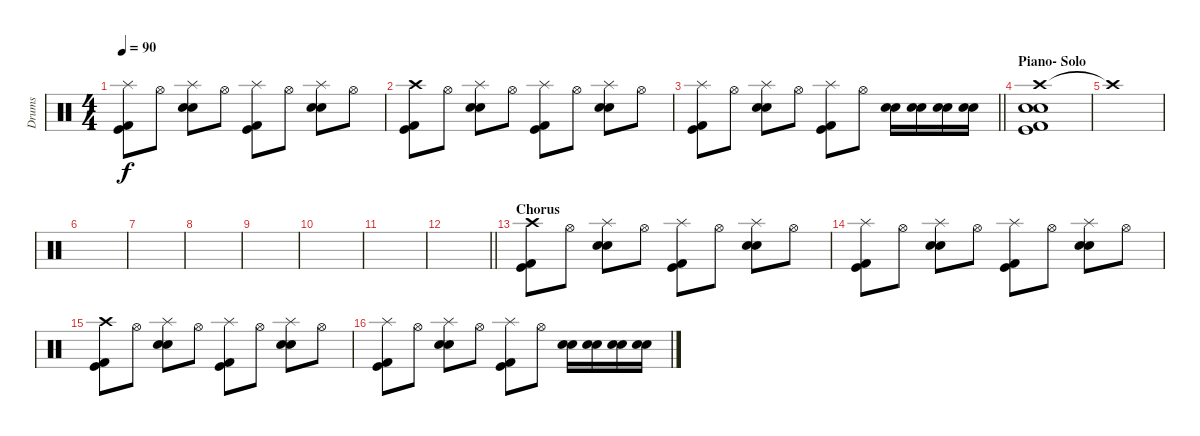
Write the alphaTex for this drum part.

\track ("Drums" "Drums") {instrument percussion}
\staff {score}
\articulation defaults
\ts (4 4)
\tempo 90
\clef neutral
\ks c
("Splash (hit)" "Kick (hit) 2" "Kick (hit)").8{dy f} "Hi-Hat (open)".8 ("Splash (hit)" "Electric Snare (hit)" "Snare (hit) 2").8 "Hi-Hat (open)".8 ("Splash (hit)" "Kick (hit) 2" "Kick (hit)").8 "Hi-Hat (open)".8 ("Splash (hit)" "Electric Snare (hit)" "Snare (hit) 2").8 "Hi-Hat (open)".8 |
("Crash high (hit)" "Kick (hit) 2" "Kick (hit)").8 "Hi-Hat (open)".8 ("Splash (hit)" "Electric Snare (hit)" "Snare (hit) 2").8 "Hi-Hat (open)".8 ("Splash (hit)" "Kick (hit) 2" "Kick (hit)").8 "Hi-Hat (open)".8 ("Splash (hit)" "Electric Snare (hit)" "Snare (hit) 2").8 "Hi-Hat (open)".8 |
\barLineRight lightlight
("Splash (hit)" "Kick (hit) 2" "Kick (hit)").8 "Hi-Hat (open)".8 ("Splash (hit)" "Electric Snare (hit)" "Snare (hit) 2").8 "Hi-Hat (open)".8 ("Splash (hit)" "Kick (hit) 2" "Kick (hit)").8 "Hi-Hat (open)".8 ("Electric Snare (hit)" "Snare (hit) 2").16 ("Electric Snare (hit)" "Snare (hit) 2").16 ("Electric Snare (hit)" "Snare (hit) 2").16 ("Electric Snare (hit)" "Snare (hit) 2").16 |
\section ("" "Piano- Solo")
("Crash high (hit)" "Electric Snare (hit)" "Snare (hit) 2" "Kick (hit) 2" "Kick (hit)").1 |
"Crash high (hit)"{t}.1 |
|
|
|
|
|
|
\barLineRight lightlight
|
\section ("" "Chorus")
("Crash high (hit)" "Kick (hit) 2" "Kick (hit)").8 "Hi-Hat (open)".8 ("Splash (hit)" "Electric Snare (hit)" "Snare (hit) 2").8 "Hi-Hat (open)".8 ("Splash (hit)" "Kick (hit) 2" "Kick (hit)").8 "Hi-Hat (open)".8 ("Splash (hit)" "Electric Snare (hit)" "Snare (hit) 2").8 "Hi-Hat (open)".8 |
("Splash (hit)" "Kick (hit) 2" "Kick (hit)").8 "Hi-Hat (open)".8 ("Splash (hit)" "Electric Snare (hit)" "Snare (hit) 2").8 "Hi-Hat (open)".8 ("Splash (hit)" "Kick (hit) 2" "Kick (hit)").8 "Hi-Hat (open)".8 ("Splash (hit)" "Electric Snare (hit)" "Snare (hit) 2").8 "Hi-Hat (open)".8 |
("Crash high (hit)" "Kick (hit) 2" "Kick (hit)").8 "Hi-Hat (open)".8 ("Splash (hit)" "Electric Snare (hit)" "Snare (hit) 2").8 "Hi-Hat (open)".8 ("Splash (hit)" "Kick (hit) 2" "Kick (hit)").8 "Hi-Hat (open)".8 ("Splash (hit)" "Electric Snare (hit)" "Snare (hit) 2").8 "Hi-Hat (open)".8 |
("Splash (hit)" "Kick (hit) 2" "Kick (hit)").8 "Hi-Hat (open)".8 ("Splash (hit)" "Electric Snare (hit)" "Snare (hit) 2").8 "Hi-Hat (open)".8 ("Splash (hit)" "Kick (hit) 2" "Kick (hit)").8 "Hi-Hat (open)".8 ("Electric Snare (hit)" "Snare (hit) 2").16 ("Electric Snare (hit)" "Snare (hit) 2").16 ("Electric Snare (hit)" "Snare (hit) 2").16 ("Electric Snare (hit)" "Snare (hit) 2").16
